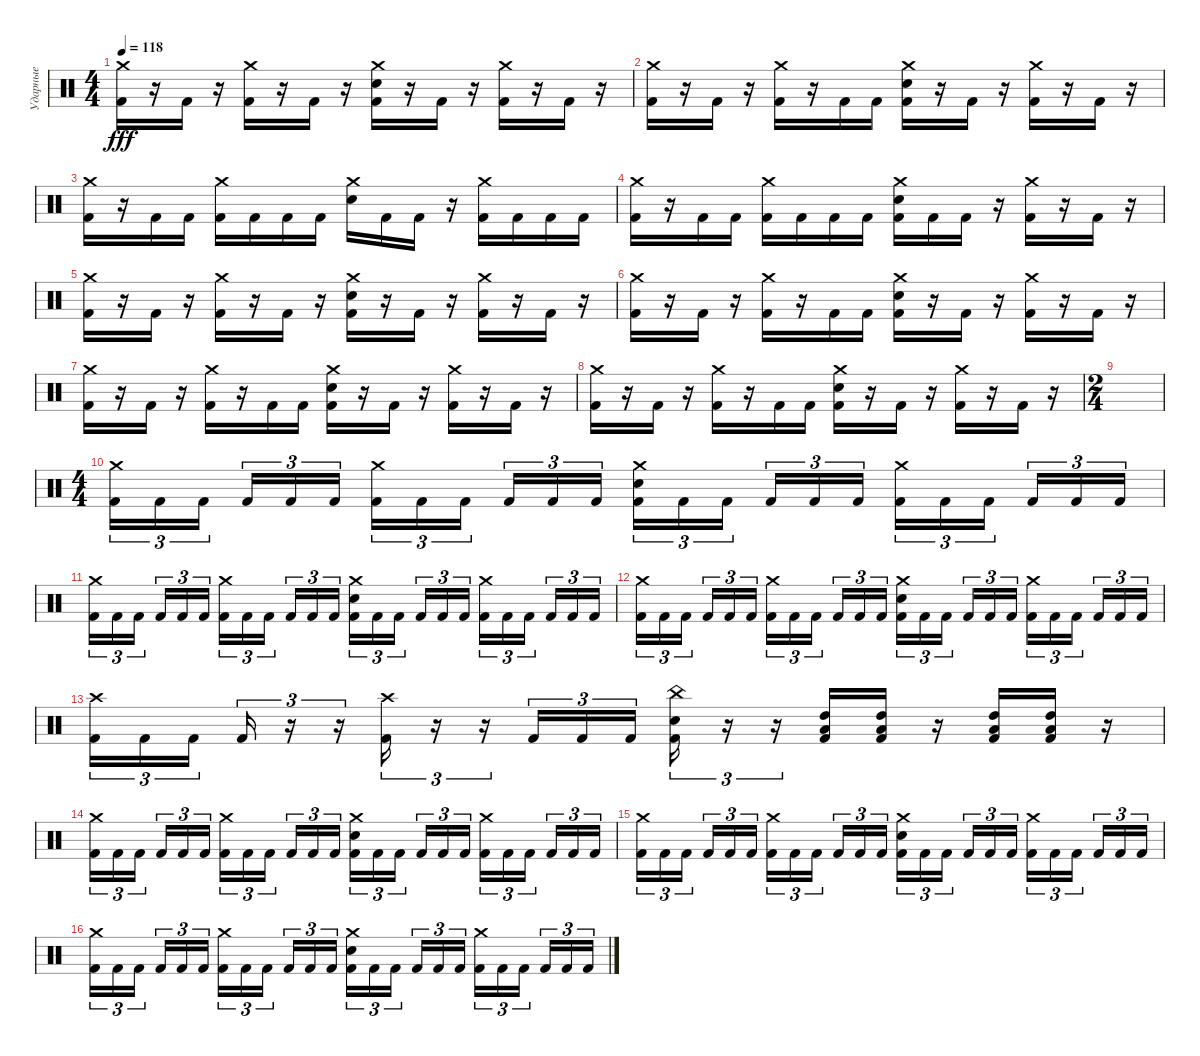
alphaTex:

\track ("Ударные" "Ударные") {instrument percussion}
\staff {score}
\articulation defaults
\ts (4 4)
\tempo 118
\clef neutral
\ks c
("Crash medium (hit)" "Kick (hit) 2").16{dy fff} r.16 "Kick (hit) 2".16 r.16 ("Crash medium (hit)" "Kick (hit) 2").16 r.16 "Kick (hit) 2".16 r.16 ("Crash medium (hit)" "Electric Snare (hit)" "Kick (hit) 2").16 r.16 "Kick (hit) 2".16 r.16 ("Crash medium (hit)" "Kick (hit) 2").16 r.16 "Kick (hit) 2".16 r.16 |
("Crash medium (hit)" "Kick (hit) 2").16 r.16 "Kick (hit) 2".16 r.16 ("Crash medium (hit)" "Kick (hit) 2").16 r.16 "Kick (hit) 2".16 "Kick (hit) 2".16 ("Crash medium (hit)" "Electric Snare (hit)" "Kick (hit) 2").16 r.16 "Kick (hit) 2".16 r.16 ("Crash medium (hit)" "Kick (hit) 2").16 r.16 "Kick (hit) 2".16 r.16 |
("Crash medium (hit)" "Kick (hit) 2").16 r.16 "Kick (hit) 2".16 "Kick (hit) 2".16 ("Crash medium (hit)" "Kick (hit) 2").16 "Kick (hit) 2".16 "Kick (hit) 2".16 "Kick (hit) 2".16 ("Crash medium (hit)" "Electric Snare (hit)").16 "Kick (hit) 2".16 "Kick (hit) 2".16 r.16 ("Crash medium (hit)" "Kick (hit) 2").16 "Kick (hit) 2".16 "Kick (hit) 2".16 "Kick (hit) 2".16 |
("Crash medium (hit)" "Kick (hit) 2").16 r.16 "Kick (hit) 2".16 "Kick (hit) 2".16 ("Crash medium (hit)" "Kick (hit) 2").16 "Kick (hit) 2".16 "Kick (hit) 2".16 "Kick (hit) 2".16 ("Crash medium (hit)" "Electric Snare (hit)" "Kick (hit) 2").16 "Kick (hit) 2".16 "Kick (hit) 2".16 r.16 ("Crash medium (hit)" "Kick (hit) 2").16 r.16 "Kick (hit) 2".16 r.16 |
("Crash medium (hit)" "Kick (hit) 2").16 r.16 "Kick (hit) 2".16 r.16 ("Crash medium (hit)" "Kick (hit) 2").16 r.16 "Kick (hit) 2".16 r.16 ("Crash medium (hit)" "Electric Snare (hit)" "Kick (hit) 2").16 r.16 "Kick (hit) 2".16 r.16 ("Crash medium (hit)" "Kick (hit) 2").16 r.16 "Kick (hit) 2".16 r.16 |
("Crash medium (hit)" "Kick (hit) 2").16 r.16 "Kick (hit) 2".16 r.16 ("Crash medium (hit)" "Kick (hit) 2").16 r.16 "Kick (hit) 2".16 "Kick (hit) 2".16 ("Crash medium (hit)" "Electric Snare (hit)" "Kick (hit) 2").16 r.16 "Kick (hit) 2".16 r.16 ("Crash medium (hit)" "Kick (hit) 2").16 r.16 "Kick (hit) 2".16 r.16 |
("Crash medium (hit)" "Kick (hit) 2").16 r.16 "Kick (hit) 2".16 r.16 ("Crash medium (hit)" "Kick (hit) 2").16 r.16 "Kick (hit) 2".16 "Kick (hit) 2".16 ("Crash medium (hit)" "Electric Snare (hit)" "Kick (hit) 2").16 r.16 "Kick (hit) 2".16 r.16 ("Crash medium (hit)" "Kick (hit) 2").16 r.16 "Kick (hit) 2".16 r.16 |
("Crash medium (hit)" "Kick (hit) 2").16 r.16 "Kick (hit) 2".16 r.16 ("Crash medium (hit)" "Kick (hit) 2").16 r.16 "Kick (hit) 2".16 "Kick (hit) 2".16 ("Crash medium (hit)" "Electric Snare (hit)" "Kick (hit) 2").16 r.16 "Kick (hit) 2".16 r.16 ("Crash medium (hit)" "Kick (hit) 2").16 r.16 "Kick (hit) 2".16 r.16 |
\ts (2 4)
|
\ts (4 4)
("Crash medium (hit)" "Kick (hit) 2").16{tu (3 2)} "Kick (hit) 2".16{tu (3 2)} "Kick (hit) 2".16{tu (3 2) beam splitsecondary} "Kick (hit) 2".16{tu (3 2)} "Kick (hit) 2".16{tu (3 2)} "Kick (hit) 2".16{tu (3 2)} ("Crash medium (hit)" "Kick (hit) 2").16{tu (3 2)} "Kick (hit) 2".16{tu (3 2)} "Kick (hit) 2".16{tu (3 2) beam splitsecondary} "Kick (hit) 2".16{tu (3 2)} "Kick (hit) 2".16{tu (3 2)} "Kick (hit) 2".16{tu (3 2)} ("Crash medium (hit)" "Electric Snare (hit)" "Kick (hit) 2").16{tu (3 2)} "Kick (hit) 2".16{tu (3 2)} "Kick (hit) 2".16{tu (3 2) beam splitsecondary} "Kick (hit) 2".16{tu (3 2)} "Kick (hit) 2".16{tu (3 2)} "Kick (hit) 2".16{tu (3 2)} ("Crash medium (hit)" "Kick (hit) 2").16{tu (3 2)} "Kick (hit) 2".16{tu (3 2)} "Kick (hit) 2".16{tu (3 2) beam splitsecondary} "Kick (hit) 2".16{tu (3 2)} "Kick (hit) 2".16{tu (3 2)} "Kick (hit) 2".16{tu (3 2)} |
("Crash medium (hit)" "Kick (hit) 2").16{tu (3 2)} "Kick (hit) 2".16{tu (3 2)} "Kick (hit) 2".16{tu (3 2) beam splitsecondary} "Kick (hit) 2".16{tu (3 2)} "Kick (hit) 2".16{tu (3 2)} "Kick (hit) 2".16{tu (3 2)} ("Crash medium (hit)" "Kick (hit) 2").16{tu (3 2)} "Kick (hit) 2".16{tu (3 2)} "Kick (hit) 2".16{tu (3 2) beam splitsecondary} "Kick (hit) 2".16{tu (3 2)} "Kick (hit) 2".16{tu (3 2)} "Kick (hit) 2".16{tu (3 2)} ("Crash medium (hit)" "Electric Snare (hit)" "Kick (hit) 2").16{tu (3 2)} "Kick (hit) 2".16{tu (3 2)} "Kick (hit) 2".16{tu (3 2) beam splitsecondary} "Kick (hit) 2".16{tu (3 2)} "Kick (hit) 2".16{tu (3 2)} "Kick (hit) 2".16{tu (3 2)} ("Crash medium (hit)" "Kick (hit) 2").16{tu (3 2)} "Kick (hit) 2".16{tu (3 2)} "Kick (hit) 2".16{tu (3 2) beam splitsecondary} "Kick (hit) 2".16{tu (3 2)} "Kick (hit) 2".16{tu (3 2)} "Kick (hit) 2".16{tu (3 2)} |
("Crash medium (hit)" "Kick (hit) 2").16{tu (3 2)} "Kick (hit) 2".16{tu (3 2)} "Kick (hit) 2".16{tu (3 2) beam splitsecondary} "Kick (hit) 2".16{tu (3 2)} "Kick (hit) 2".16{tu (3 2)} "Kick (hit) 2".16{tu (3 2)} ("Crash medium (hit)" "Kick (hit) 2").16{tu (3 2)} "Kick (hit) 2".16{tu (3 2)} "Kick (hit) 2".16{tu (3 2) beam splitsecondary} "Kick (hit) 2".16{tu (3 2)} "Kick (hit) 2".16{tu (3 2)} "Kick (hit) 2".16{tu (3 2)} ("Crash medium (hit)" "Electric Snare (hit)" "Kick (hit) 2").16{tu (3 2)} "Kick (hit) 2".16{tu (3 2)} "Kick (hit) 2".16{tu (3 2) beam splitsecondary} "Kick (hit) 2".16{tu (3 2)} "Kick (hit) 2".16{tu (3 2)} "Kick (hit) 2".16{tu (3 2)} ("Crash medium (hit)" "Kick (hit) 2").16{tu (3 2)} "Kick (hit) 2".16{tu (3 2)} "Kick (hit) 2".16{tu (3 2) beam splitsecondary} "Kick (hit) 2".16{tu (3 2)} "Kick (hit) 2".16{tu (3 2)} "Kick (hit) 2".16{tu (3 2)} |
("Crash high (hit)" "Kick (hit) 2").16{tu (3 2)} "Kick (hit) 2".16{tu (3 2)} "Kick (hit) 2".16{tu (3 2) beam splitsecondary} "Kick (hit) 2".16{tu (3 2)} r.16{tu (3 2)} r.16{tu (3 2)} ("Crash high (hit)" "Kick (hit) 2").16{tu (3 2)} r.16{tu (3 2)} r.16{tu (3 2)} "Kick (hit) 2".16{tu (3 2)} "Kick (hit) 2".16{tu (3 2)} "Kick (hit) 2".16{tu (3 2)} ("China (hit)" "Electric Snare (hit)" "Kick (hit) 2").16{tu (3 2)} r.16{tu (3 2)} r.16{tu (3 2)} ("High Tom (hit)" "Low Tom (hit)" "Kick (hit) 2").16 ("High Tom (hit)" "Low Tom (hit)" "Kick (hit) 2").16 r.16 ("High Tom (hit)" "Low Tom (hit)" "Kick (hit) 2").16 ("High Tom (hit)" "Low Tom (hit)" "Kick (hit) 2").16 r.16 |
("Crash medium (hit)" "Kick (hit) 2").16{tu (3 2)} "Kick (hit) 2".16{tu (3 2)} "Kick (hit) 2".16{tu (3 2) beam splitsecondary} "Kick (hit) 2".16{tu (3 2)} "Kick (hit) 2".16{tu (3 2)} "Kick (hit) 2".16{tu (3 2)} ("Crash medium (hit)" "Kick (hit) 2").16{tu (3 2)} "Kick (hit) 2".16{tu (3 2)} "Kick (hit) 2".16{tu (3 2) beam splitsecondary} "Kick (hit) 2".16{tu (3 2)} "Kick (hit) 2".16{tu (3 2)} "Kick (hit) 2".16{tu (3 2)} ("Crash medium (hit)" "Electric Snare (hit)" "Kick (hit) 2").16{tu (3 2)} "Kick (hit) 2".16{tu (3 2)} "Kick (hit) 2".16{tu (3 2) beam splitsecondary} "Kick (hit) 2".16{tu (3 2)} "Kick (hit) 2".16{tu (3 2)} "Kick (hit) 2".16{tu (3 2)} ("Crash medium (hit)" "Kick (hit) 2").16{tu (3 2)} "Kick (hit) 2".16{tu (3 2)} "Kick (hit) 2".16{tu (3 2) beam splitsecondary} "Kick (hit) 2".16{tu (3 2)} "Kick (hit) 2".16{tu (3 2)} "Kick (hit) 2".16{tu (3 2)} |
("Crash medium (hit)" "Kick (hit) 2").16{tu (3 2)} "Kick (hit) 2".16{tu (3 2)} "Kick (hit) 2".16{tu (3 2) beam splitsecondary} "Kick (hit) 2".16{tu (3 2)} "Kick (hit) 2".16{tu (3 2)} "Kick (hit) 2".16{tu (3 2)} ("Crash medium (hit)" "Kick (hit) 2").16{tu (3 2)} "Kick (hit) 2".16{tu (3 2)} "Kick (hit) 2".16{tu (3 2) beam splitsecondary} "Kick (hit) 2".16{tu (3 2)} "Kick (hit) 2".16{tu (3 2)} "Kick (hit) 2".16{tu (3 2)} ("Crash medium (hit)" "Electric Snare (hit)" "Kick (hit) 2").16{tu (3 2)} "Kick (hit) 2".16{tu (3 2)} "Kick (hit) 2".16{tu (3 2) beam splitsecondary} "Kick (hit) 2".16{tu (3 2)} "Kick (hit) 2".16{tu (3 2)} "Kick (hit) 2".16{tu (3 2)} ("Crash medium (hit)" "Kick (hit) 2").16{tu (3 2)} "Kick (hit) 2".16{tu (3 2)} "Kick (hit) 2".16{tu (3 2) beam splitsecondary} "Kick (hit) 2".16{tu (3 2)} "Kick (hit) 2".16{tu (3 2)} "Kick (hit) 2".16{tu (3 2)} |
("Crash medium (hit)" "Kick (hit) 2").16{tu (3 2)} "Kick (hit) 2".16{tu (3 2)} "Kick (hit) 2".16{tu (3 2) beam splitsecondary} "Kick (hit) 2".16{tu (3 2)} "Kick (hit) 2".16{tu (3 2)} "Kick (hit) 2".16{tu (3 2)} ("Crash medium (hit)" "Kick (hit) 2").16{tu (3 2)} "Kick (hit) 2".16{tu (3 2)} "Kick (hit) 2".16{tu (3 2) beam splitsecondary} "Kick (hit) 2".16{tu (3 2)} "Kick (hit) 2".16{tu (3 2)} "Kick (hit) 2".16{tu (3 2)} ("Crash medium (hit)" "Electric Snare (hit)" "Kick (hit) 2").16{tu (3 2)} "Kick (hit) 2".16{tu (3 2)} "Kick (hit) 2".16{tu (3 2) beam splitsecondary} "Kick (hit) 2".16{tu (3 2)} "Kick (hit) 2".16{tu (3 2)} "Kick (hit) 2".16{tu (3 2)} ("Crash medium (hit)" "Kick (hit) 2").16{tu (3 2)} "Kick (hit) 2".16{tu (3 2)} "Kick (hit) 2".16{tu (3 2) beam splitsecondary} "Kick (hit) 2".16{tu (3 2)} "Kick (hit) 2".16{tu (3 2)} "Kick (hit) 2".16{tu (3 2)}
